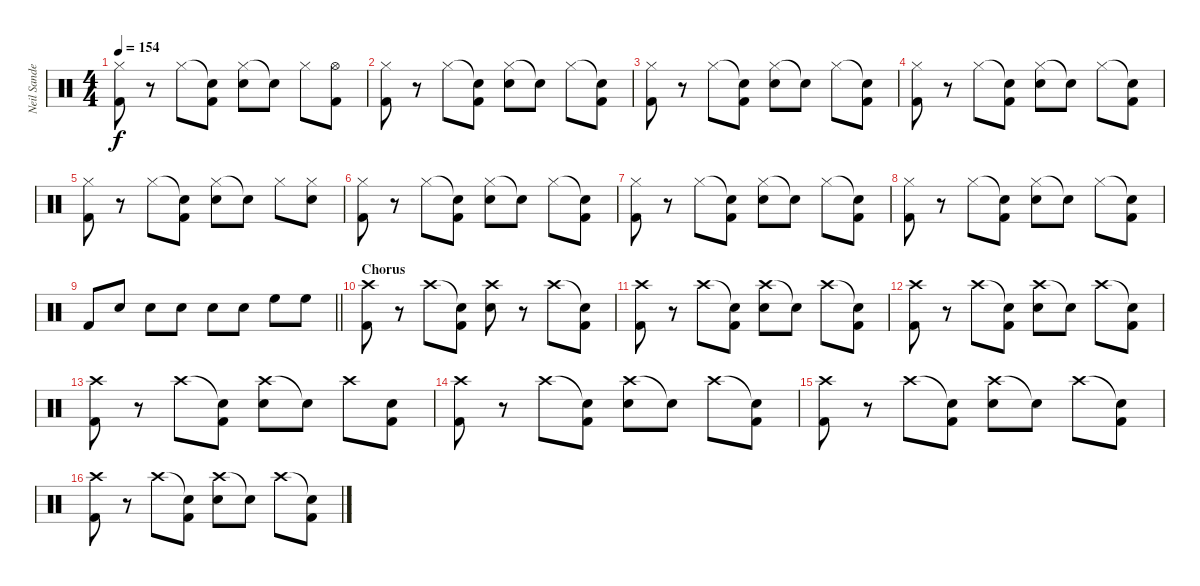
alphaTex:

\track ("Neil Sanderson" "Neil Sande") {instrument percussion}
\staff {score}
\articulation defaults
\ts (4 4)
\tempo 154
\clef neutral
\ks c
("Hi-Hat (closed)" "Kick (hit) 2").8{dy f} r.8 "Hi-Hat (closed)".8 ("Snare (hit)"{t} "Kick (hit) 2").8 ("Hi-Hat (closed)" "Snare (hit) 2").8 "Snare (hit)"{t}.8 "Hi-Hat (closed)".8 ("Hi-Hat (open)" "Kick (hit) 2").8 |
("Hi-Hat (closed)" "Kick (hit) 2").8 r.8 "Hi-Hat (closed)".8 ("Snare (hit)"{t} "Kick (hit) 2").8 ("Hi-Hat (closed)" "Snare (hit) 2").8 "Snare (hit)"{t}.8 "Hi-Hat (closed)".8 ("Snare (hit)"{t} "Kick (hit) 2").8 |
("Hi-Hat (closed)" "Kick (hit) 2").8 r.8 "Hi-Hat (closed)".8 ("Snare (hit)"{t} "Kick (hit) 2").8 ("Hi-Hat (closed)" "Snare (hit) 2").8 "Snare (hit)"{t}.8 "Hi-Hat (closed)".8 ("Snare (hit)"{t} "Kick (hit) 2").8 |
("Hi-Hat (closed)" "Kick (hit) 2").8 r.8 "Hi-Hat (closed)".8 ("Snare (hit)"{t} "Kick (hit) 2").8 ("Hi-Hat (closed)" "Snare (hit) 2").8 "Snare (hit)"{t}.8 "Hi-Hat (closed)".8 ("Snare (hit)"{t} "Kick (hit) 2").8 |
("Hi-Hat (closed)" "Kick (hit) 2").8 r.8 "Hi-Hat (closed)".8 ("Snare (hit)"{t} "Kick (hit) 2").8 ("Hi-Hat (closed)" "Snare (hit) 2").8 "Snare (hit)"{t}.8 "Hi-Hat (closed)".8 ("Hi-Hat (closed)" "Snare (hit) 2").8 |
("Hi-Hat (closed)" "Kick (hit) 2").8 r.8 "Hi-Hat (closed)".8 ("Snare (hit)"{t} "Kick (hit) 2").8 ("Hi-Hat (closed)" "Snare (hit) 2").8 "Snare (hit)"{t}.8 "Hi-Hat (closed)".8 ("Snare (hit)"{t} "Kick (hit) 2").8 |
("Hi-Hat (closed)" "Kick (hit) 2").8 r.8 "Hi-Hat (closed)".8 ("Snare (hit)"{t} "Kick (hit) 2").8 ("Hi-Hat (closed)" "Snare (hit) 2").8 "Snare (hit)"{t}.8 "Hi-Hat (closed)".8 ("Snare (hit)"{t} "Kick (hit) 2").8 |
("Hi-Hat (closed)" "Kick (hit) 2").8 r.8 "Hi-Hat (closed)".8 ("Snare (hit)"{t} "Kick (hit) 2").8 ("Hi-Hat (closed)" "Snare (hit) 2").8 "Snare (hit)"{t}.8 "Hi-Hat (closed)".8 ("Snare (hit)"{t} "Kick (hit) 2").8 |
\barLineRight lightlight "Kick (hit) 2".8 "Snare (hit) 2".8 "Snare (hit) 2".8 "Snare (hit) 2".8 "Snare (hit) 2".8 "Snare (hit) 2".8 "High Floor Tom (hit)".8 "High Floor Tom (hit)".8
|
\section ("" "Chorus ")
("Crash high (hit)" "Kick (hit) 2").8 r.8 "Crash high (hit)".8 ("Snare (hit)"{t} "Kick (hit) 2").8 ("Crash high (hit)" "Snare (hit) 2").8 r.8 "Crash high (hit)".8 ("Snare (hit)"{t} "Kick (hit) 2").8 |
("Crash high (hit)" "Kick (hit) 2").8 r.8 "Crash high (hit)".8 ("Snare (hit)"{t} "Kick (hit) 2").8 ("Crash high (hit)" "Snare (hit) 2").8 "Snare (hit)"{t}.8 "Crash high (hit)".8 ("Snare (hit)"{t} "Kick (hit) 2").8 |
("Crash high (hit)" "Kick (hit) 2").8 r.8 "Crash high (hit)".8 ("Snare (hit)"{t} "Kick (hit) 2").8 ("Crash high (hit)" "Snare (hit) 2").8 "Snare (hit)"{t}.8 "Crash high (hit)".8 ("Snare (hit)"{t} "Kick (hit) 2").8 |
("Crash high (hit)" "Kick (hit) 2").8 r.8 "Crash high (hit)".8 ("Snare (hit)"{t} "Kick (hit) 2").8 ("Crash high (hit)" "Snare (hit) 2").8 "Snare (hit)"{t}.8 "Crash high (hit)".8 ("Snare (hit) 2" "Kick (hit) 2").8 |
("Crash high (hit)" "Kick (hit) 2").8 r.8 "Crash high (hit)".8 ("Snare (hit)"{t} "Kick (hit) 2").8 ("Crash high (hit)" "Snare (hit) 2").8 "Snare (hit)"{t}.8 "Crash high (hit)".8 ("Snare (hit)"{t} "Kick (hit) 2").8 |
("Crash high (hit)" "Kick (hit) 2").8 r.8 "Crash high (hit)".8 ("Snare (hit)"{t} "Kick (hit) 2").8 ("Crash high (hit)" "Snare (hit) 2").8 "Snare (hit)"{t}.8 "Crash high (hit)".8 ("Snare (hit)"{t} "Kick (hit) 2").8 |
("Crash high (hit)" "Kick (hit) 2").8 r.8 "Crash high (hit)".8 ("Snare (hit)"{t} "Kick (hit) 2").8 ("Crash high (hit)" "Snare (hit) 2").8 "Snare (hit)"{t}.8 "Crash high (hit)".8 ("Snare (hit)"{t} "Kick (hit) 2").8
